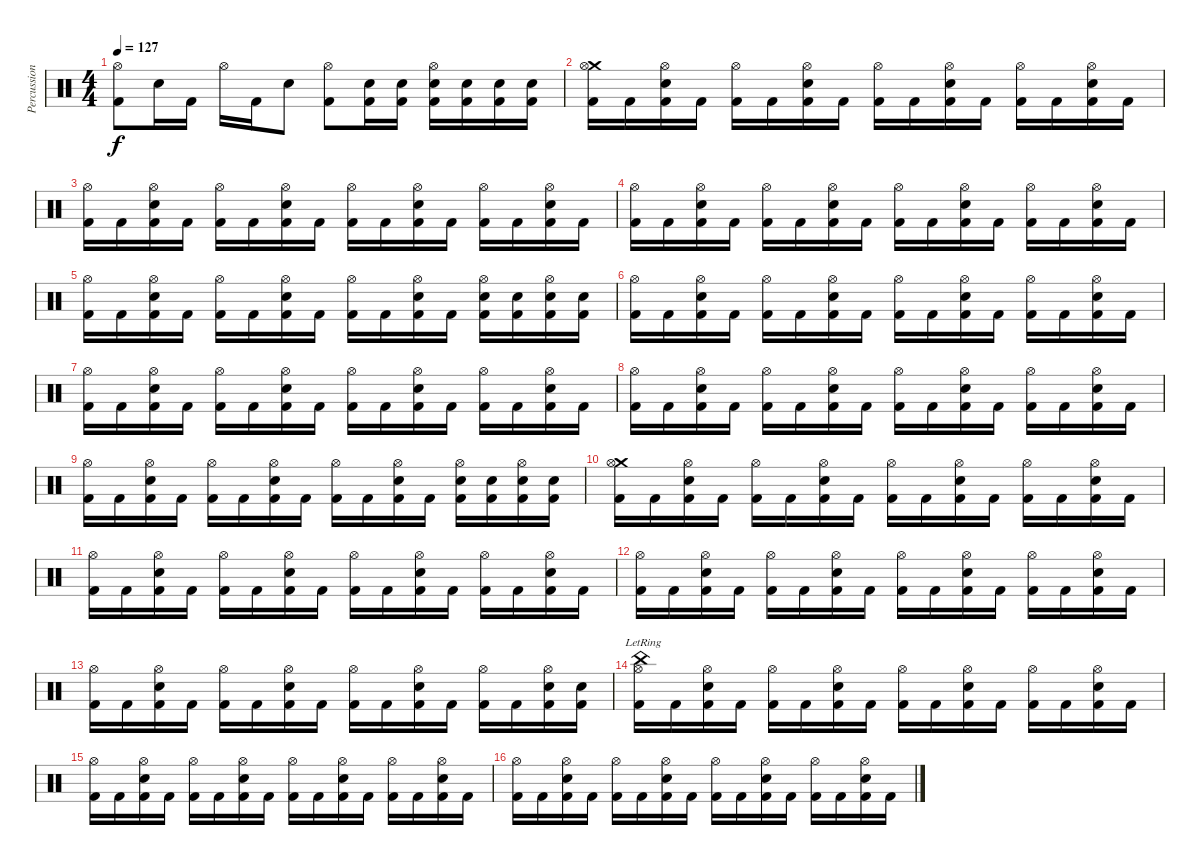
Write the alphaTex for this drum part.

\track ("Percussion" "Percussion") {instrument percussion}
\staff {score}
\articulation defaults
\ts (4 4)
\tempo 127
\clef neutral
\ks c
("Hi-Hat (open)" "Kick (hit) 2").8{dy f} "Electric Snare (hit)".16 "Kick (hit) 2".16 "Hi-Hat (open)".16 "Kick (hit) 2".16 "Electric Snare (hit)".8 ("Hi-Hat (open)" "Kick (hit) 2").8 ("Electric Snare (hit)" "Kick (hit) 2").16 ("Electric Snare (hit)" "Kick (hit) 2").16 ("Hi-Hat (open)" "Electric Snare (hit)" "Kick (hit) 2").16 ("Electric Snare (hit)" "Kick (hit) 2").16 ("Electric Snare (hit)" "Kick (hit) 2").16 ("Electric Snare (hit)" "Kick (hit) 2").16 |
("Crash medium (hit)" "Hi-Hat (open)" "Kick (hit) 2").16 "Kick (hit) 2".16 ("Hi-Hat (open)" "Electric Snare (hit)" "Kick (hit) 2").16 "Kick (hit) 2".16 ("Hi-Hat (open)" "Kick (hit) 2").16 "Kick (hit) 2".16 ("Hi-Hat (open)" "Electric Snare (hit)" "Kick (hit) 2").16 "Kick (hit) 2".16 ("Hi-Hat (open)" "Kick (hit) 2").16 "Kick (hit) 2".16 ("Hi-Hat (open)" "Electric Snare (hit)" "Kick (hit) 2").16 "Kick (hit) 2".16 ("Hi-Hat (open)" "Kick (hit) 2").16 "Kick (hit) 2".16 ("Hi-Hat (open)" "Electric Snare (hit)" "Kick (hit) 2").16 "Kick (hit) 2".16 |
("Hi-Hat (open)" "Kick (hit) 2").16 "Kick (hit) 2".16 ("Hi-Hat (open)" "Electric Snare (hit)" "Kick (hit) 2").16 "Kick (hit) 2".16 ("Hi-Hat (open)" "Kick (hit) 2").16 "Kick (hit) 2".16 ("Hi-Hat (open)" "Electric Snare (hit)" "Kick (hit) 2").16 "Kick (hit) 2".16 ("Hi-Hat (open)" "Kick (hit) 2").16 "Kick (hit) 2".16 ("Hi-Hat (open)" "Electric Snare (hit)" "Kick (hit) 2").16 "Kick (hit) 2".16 ("Hi-Hat (open)" "Kick (hit) 2").16 "Kick (hit) 2".16 ("Hi-Hat (open)" "Electric Snare (hit)" "Kick (hit) 2").16 "Kick (hit) 2".16 |
("Hi-Hat (open)" "Kick (hit) 2").16 "Kick (hit) 2".16 ("Hi-Hat (open)" "Electric Snare (hit)" "Kick (hit) 2").16 "Kick (hit) 2".16 ("Hi-Hat (open)" "Kick (hit) 2").16 "Kick (hit) 2".16 ("Hi-Hat (open)" "Electric Snare (hit)" "Kick (hit) 2").16 "Kick (hit) 2".16 ("Hi-Hat (open)" "Kick (hit) 2").16 "Kick (hit) 2".16 ("Hi-Hat (open)" "Electric Snare (hit)" "Kick (hit) 2").16 "Kick (hit) 2".16 ("Hi-Hat (open)" "Kick (hit) 2").16 "Kick (hit) 2".16 ("Hi-Hat (open)" "Electric Snare (hit)" "Kick (hit) 2").16 "Kick (hit) 2".16 |
("Hi-Hat (open)" "Kick (hit) 2").16 "Kick (hit) 2".16 ("Hi-Hat (open)" "Electric Snare (hit)" "Kick (hit) 2").16 "Kick (hit) 2".16 ("Hi-Hat (open)" "Kick (hit) 2").16 "Kick (hit) 2".16 ("Hi-Hat (open)" "Electric Snare (hit)" "Kick (hit) 2").16 "Kick (hit) 2".16 ("Hi-Hat (open)" "Kick (hit) 2").16 "Kick (hit) 2".16 ("Hi-Hat (open)" "Electric Snare (hit)" "Kick (hit) 2").16 "Kick (hit) 2".16 ("Hi-Hat (open)" "Electric Snare (hit)" "Kick (hit) 2").16 ("Electric Snare (hit)" "Kick (hit) 2").16 ("Hi-Hat (open)" "Electric Snare (hit)" "Kick (hit) 2").16 ("Electric Snare (hit)" "Kick (hit) 2").16 |
("Hi-Hat (open)" "Kick (hit) 2").16 "Kick (hit) 2".16 ("Hi-Hat (open)" "Electric Snare (hit)" "Kick (hit) 2").16 "Kick (hit) 2".16 ("Hi-Hat (open)" "Kick (hit) 2").16 "Kick (hit) 2".16 ("Hi-Hat (open)" "Electric Snare (hit)" "Kick (hit) 2").16 "Kick (hit) 2".16 ("Hi-Hat (open)" "Kick (hit) 2").16 "Kick (hit) 2".16 ("Hi-Hat (open)" "Electric Snare (hit)" "Kick (hit) 2").16 "Kick (hit) 2".16 ("Hi-Hat (open)" "Kick (hit) 2").16 "Kick (hit) 2".16 ("Hi-Hat (open)" "Electric Snare (hit)" "Kick (hit) 2").16 "Kick (hit) 2".16 |
("Hi-Hat (open)" "Kick (hit) 2").16 "Kick (hit) 2".16 ("Hi-Hat (open)" "Electric Snare (hit)" "Kick (hit) 2").16 "Kick (hit) 2".16 ("Hi-Hat (open)" "Kick (hit) 2").16 "Kick (hit) 2".16 ("Hi-Hat (open)" "Electric Snare (hit)" "Kick (hit) 2").16 "Kick (hit) 2".16 ("Hi-Hat (open)" "Kick (hit) 2").16 "Kick (hit) 2".16 ("Hi-Hat (open)" "Electric Snare (hit)" "Kick (hit) 2").16 "Kick (hit) 2".16 ("Hi-Hat (open)" "Kick (hit) 2").16 "Kick (hit) 2".16 ("Hi-Hat (open)" "Electric Snare (hit)" "Kick (hit) 2").16 "Kick (hit) 2".16 |
("Hi-Hat (open)" "Kick (hit) 2").16 "Kick (hit) 2".16 ("Hi-Hat (open)" "Electric Snare (hit)" "Kick (hit) 2").16 "Kick (hit) 2".16 ("Hi-Hat (open)" "Kick (hit) 2").16 "Kick (hit) 2".16 ("Hi-Hat (open)" "Electric Snare (hit)" "Kick (hit) 2").16 "Kick (hit) 2".16 ("Hi-Hat (open)" "Kick (hit) 2").16 "Kick (hit) 2".16 ("Hi-Hat (open)" "Electric Snare (hit)" "Kick (hit) 2").16 "Kick (hit) 2".16 ("Hi-Hat (open)" "Kick (hit) 2").16 "Kick (hit) 2".16 ("Hi-Hat (open)" "Electric Snare (hit)" "Kick (hit) 2").16 "Kick (hit) 2".16 |
("Hi-Hat (open)" "Kick (hit) 2").16 "Kick (hit) 2".16 ("Hi-Hat (open)" "Electric Snare (hit)" "Kick (hit) 2").16 "Kick (hit) 2".16 ("Hi-Hat (open)" "Kick (hit) 2").16 "Kick (hit) 2".16 ("Hi-Hat (open)" "Electric Snare (hit)" "Kick (hit) 2").16 "Kick (hit) 2".16 ("Hi-Hat (open)" "Kick (hit) 2").16 "Kick (hit) 2".16 ("Hi-Hat (open)" "Electric Snare (hit)" "Kick (hit) 2").16 "Kick (hit) 2".16 ("Hi-Hat (open)" "Electric Snare (hit)" "Kick (hit) 2").16 ("Electric Snare (hit)" "Kick (hit) 2").16 ("Hi-Hat (open)" "Electric Snare (hit)" "Kick (hit) 2").16 ("Electric Snare (hit)" "Kick (hit) 2").16 |
("Crash medium (hit)" "Hi-Hat (open)" "Kick (hit) 2").16 "Kick (hit) 2".16 ("Hi-Hat (open)" "Electric Snare (hit)" "Kick (hit) 2").16 "Kick (hit) 2".16 ("Hi-Hat (open)" "Kick (hit) 2").16 "Kick (hit) 2".16 ("Hi-Hat (open)" "Electric Snare (hit)" "Kick (hit) 2").16 "Kick (hit) 2".16 ("Hi-Hat (open)" "Kick (hit) 2").16 "Kick (hit) 2".16 ("Hi-Hat (open)" "Electric Snare (hit)" "Kick (hit) 2").16 "Kick (hit) 2".16 ("Hi-Hat (open)" "Kick (hit) 2").16 "Kick (hit) 2".16 ("Hi-Hat (open)" "Electric Snare (hit)" "Kick (hit) 2").16 "Kick (hit) 2".16 |
("Hi-Hat (open)" "Kick (hit) 2").16 "Kick (hit) 2".16 ("Hi-Hat (open)" "Electric Snare (hit)" "Kick (hit) 2").16 "Kick (hit) 2".16 ("Hi-Hat (open)" "Kick (hit) 2").16 "Kick (hit) 2".16 ("Hi-Hat (open)" "Electric Snare (hit)" "Kick (hit) 2").16 "Kick (hit) 2".16 ("Hi-Hat (open)" "Kick (hit) 2").16 "Kick (hit) 2".16 ("Hi-Hat (open)" "Electric Snare (hit)" "Kick (hit) 2").16 "Kick (hit) 2".16 ("Hi-Hat (open)" "Kick (hit) 2").16 "Kick (hit) 2".16 ("Hi-Hat (open)" "Electric Snare (hit)" "Kick (hit) 2").16 "Kick (hit) 2".16 |
("Hi-Hat (open)" "Kick (hit) 2").16 "Kick (hit) 2".16 ("Hi-Hat (open)" "Electric Snare (hit)" "Kick (hit) 2").16 "Kick (hit) 2".16 ("Hi-Hat (open)" "Kick (hit) 2").16 "Kick (hit) 2".16 ("Hi-Hat (open)" "Electric Snare (hit)" "Kick (hit) 2").16 "Kick (hit) 2".16 ("Hi-Hat (open)" "Kick (hit) 2").16 "Kick (hit) 2".16 ("Hi-Hat (open)" "Electric Snare (hit)" "Kick (hit) 2").16 "Kick (hit) 2".16 ("Hi-Hat (open)" "Kick (hit) 2").16 "Kick (hit) 2".16 ("Hi-Hat (open)" "Electric Snare (hit)" "Kick (hit) 2").16 "Kick (hit) 2".16 |
("Hi-Hat (open)" "Kick (hit) 2").16 "Kick (hit) 2".16 ("Hi-Hat (open)" "Electric Snare (hit)" "Kick (hit) 2").16 "Kick (hit) 2".16 ("Hi-Hat (open)" "Kick (hit) 2").16 "Kick (hit) 2".16 ("Hi-Hat (open)" "Electric Snare (hit)" "Kick (hit) 2").16 "Kick (hit) 2".16 ("Hi-Hat (open)" "Kick (hit) 2").16 "Kick (hit) 2".16 ("Hi-Hat (open)" "Electric Snare (hit)" "Kick (hit) 2").16 "Kick (hit) 2".16 ("Hi-Hat (open)" "Kick (hit) 2").16 "Kick (hit) 2".16 ("Hi-Hat (open)" "Electric Snare (hit)" "Kick (hit) 2").16 ("Electric Snare (hit)" "Kick (hit) 2").16 |
("China (hit)"{lr} "Hi-Hat (open)" "Kick (hit) 2").16 "Kick (hit) 2".16 ("Hi-Hat (open)" "Electric Snare (hit)" "Kick (hit) 2").16 "Kick (hit) 2".16 ("Hi-Hat (open)" "Kick (hit) 2").16 "Kick (hit) 2".16 ("Hi-Hat (open)" "Electric Snare (hit)" "Kick (hit) 2").16 "Kick (hit) 2".16 ("Hi-Hat (open)" "Kick (hit) 2").16 "Kick (hit) 2".16 ("Hi-Hat (open)" "Electric Snare (hit)" "Kick (hit) 2").16 "Kick (hit) 2".16 ("Hi-Hat (open)" "Kick (hit) 2").16 "Kick (hit) 2".16 ("Hi-Hat (open)" "Electric Snare (hit)" "Kick (hit) 2").16 "Kick (hit) 2".16 |
("Hi-Hat (open)" "Kick (hit) 2").16 "Kick (hit) 2".16 ("Hi-Hat (open)" "Electric Snare (hit)" "Kick (hit) 2").16 "Kick (hit) 2".16 ("Hi-Hat (open)" "Kick (hit) 2").16 "Kick (hit) 2".16 ("Hi-Hat (open)" "Electric Snare (hit)" "Kick (hit) 2").16 "Kick (hit) 2".16 ("Hi-Hat (open)" "Kick (hit) 2").16 "Kick (hit) 2".16 ("Hi-Hat (open)" "Electric Snare (hit)" "Kick (hit) 2").16 "Kick (hit) 2".16 ("Hi-Hat (open)" "Kick (hit) 2").16 "Kick (hit) 2".16 ("Hi-Hat (open)" "Electric Snare (hit)" "Kick (hit) 2").16 "Kick (hit) 2".16 |
("Hi-Hat (open)" "Kick (hit) 2").16 "Kick (hit) 2".16 ("Hi-Hat (open)" "Electric Snare (hit)" "Kick (hit) 2").16 "Kick (hit) 2".16 ("Hi-Hat (open)" "Kick (hit) 2").16 "Kick (hit) 2".16 ("Hi-Hat (open)" "Electric Snare (hit)" "Kick (hit) 2").16 "Kick (hit) 2".16 ("Hi-Hat (open)" "Kick (hit) 2").16 "Kick (hit) 2".16 ("Hi-Hat (open)" "Electric Snare (hit)" "Kick (hit) 2").16 "Kick (hit) 2".16 ("Hi-Hat (open)" "Kick (hit) 2").16 "Kick (hit) 2".16 ("Hi-Hat (open)" "Electric Snare (hit)" "Kick (hit) 2").16 "Kick (hit) 2".16
